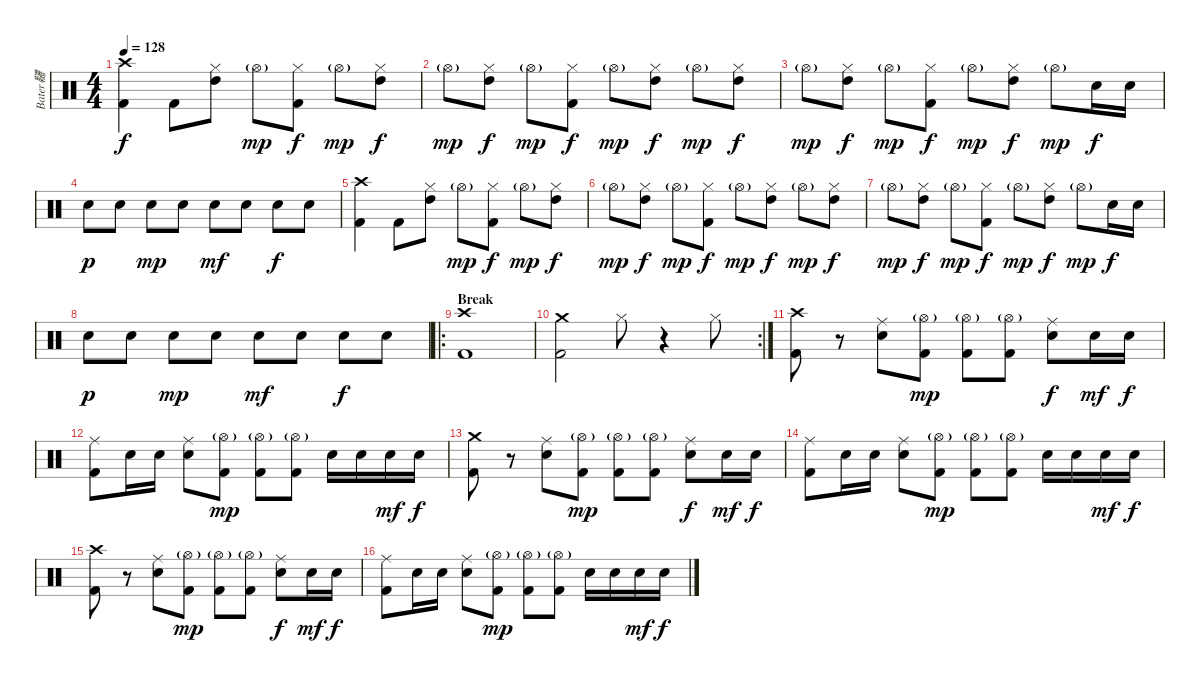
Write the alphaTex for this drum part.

\track ("Bater韆" "Bater韆") {instrument percussion}
\staff {score}
\articulation defaults
\ts (4 4)
\tempo 128
\clef neutral
\ks c
("Crash high (hit)" "Kick (hit) 2").4{dy f} "Kick (hit) 2".8 ("Hi-Hat (closed)" "High Tom (hit)").8 "Hi-Hat (open)"{g}.8{dy mp} ("Hi-Hat (closed)" "Kick (hit) 2").8{dy f} "Hi-Hat (open)"{g}.8{dy mp} ("Hi-Hat (closed)" "High Tom (hit)").8{dy f} |
"Hi-Hat (open)"{g}.8{dy mp} ("Hi-Hat (closed)" "High Tom (hit)").8{dy f} "Hi-Hat (open)"{g}.8{dy mp} ("Hi-Hat (closed)" "Kick (hit) 2").8{dy f} "Hi-Hat (open)"{g}.8{dy mp} ("Hi-Hat (closed)" "High Tom (hit)").8{dy f} "Hi-Hat (open)"{g}.8{dy mp} ("Hi-Hat (closed)" "High Tom (hit)").8{dy f} |
"Hi-Hat (open)"{g}.8{dy mp} ("Hi-Hat (closed)" "High Tom (hit)").8{dy f} "Hi-Hat (open)"{g}.8{dy mp} ("Hi-Hat (closed)" "Kick (hit) 2").8{dy f} "Hi-Hat (open)"{g}.8{dy mp} ("Hi-Hat (closed)" "High Tom (hit)").8{dy f} "Hi-Hat (open)"{g}.8{dy mp} "Electric Snare (hit)".16{dy f} "Electric Snare (hit)".16 |
"Electric Snare (hit)".8{dy p} "Electric Snare (hit)".8 "Electric Snare (hit)".8{dy mp} "Electric Snare (hit)".8 "Electric Snare (hit)".8{dy mf} "Electric Snare (hit)".8 "Electric Snare (hit)".8{dy f} "Electric Snare (hit)".8 |
("Crash high (hit)" "Kick (hit) 2").4 "Kick (hit) 2".8 ("Hi-Hat (closed)" "High Tom (hit)").8 "Hi-Hat (open)"{g}.8{dy mp} ("Hi-Hat (closed)" "Kick (hit) 2").8{dy f} "Hi-Hat (open)"{g}.8{dy mp} ("Hi-Hat (closed)" "High Tom (hit)").8{dy f} |
"Hi-Hat (open)"{g}.8{dy mp} ("Hi-Hat (closed)" "High Tom (hit)").8{dy f} "Hi-Hat (open)"{g}.8{dy mp} ("Hi-Hat (closed)" "Kick (hit) 2").8{dy f} "Hi-Hat (open)"{g}.8{dy mp} ("Hi-Hat (closed)" "High Tom (hit)").8{dy f} "Hi-Hat (open)"{g}.8{dy mp} ("Hi-Hat (closed)" "High Tom (hit)").8{dy f} |
"Hi-Hat (open)"{g}.8{dy mp} ("Hi-Hat (closed)" "High Tom (hit)").8{dy f} "Hi-Hat (open)"{g}.8{dy mp} ("Hi-Hat (closed)" "Kick (hit) 2").8{dy f} "Hi-Hat (open)"{g}.8{dy mp} ("Hi-Hat (closed)" "High Tom (hit)").8{dy f} "Hi-Hat (open)"{g}.8{dy mp} "Electric Snare (hit)".16{dy f} "Electric Snare (hit)".16 |
"Electric Snare (hit)".8{dy p} "Electric Snare (hit)".8 "Electric Snare (hit)".8{dy mp} "Electric Snare (hit)".8 "Electric Snare (hit)".8{dy mf} "Electric Snare (hit)".8 "Electric Snare (hit)".8{dy f} "Electric Snare (hit)".8 |
\ro
\section ("" "Break")
("Crash high (hit)" "Kick (hit) 2").1 |
\rc 2
("Crash medium (hit)" "Kick (hit) 2").2 "Hi-Hat (closed)".8 r.4 "Hi-Hat (closed)".8 |
("Crash high (hit)" "Kick (hit) 2").8 r.8 ("Ride (middle)" "Electric Snare (hit)").8 ("Hi-Hat (open)"{g} "Kick (hit) 2").8{dy mp} ("Hi-Hat (open)"{g} "Kick (hit) 2").8 ("Hi-Hat (open)"{g} "Kick (hit) 2").8 ("Ride (middle)" "Electric Snare (hit)").8{dy f} "Electric Snare (hit)".16{dy mf} "Electric Snare (hit)".16{dy f} |
("Ride (middle)" "Kick (hit) 2").8 "Electric Snare (hit)".16 "Electric Snare (hit)".16 ("Ride (middle)" "Electric Snare (hit)").8 ("Hi-Hat (open)"{g} "Kick (hit) 2").8{dy mp} ("Hi-Hat (open)"{g} "Kick (hit) 2").8 ("Hi-Hat (open)"{g} "Kick (hit) 2").8 "Electric Snare (hit)".16 "Electric Snare (hit)".16 "Electric Snare (hit)".16{dy mf} "Electric Snare (hit)".16{dy f} |
("Crash medium (hit)" "Kick (hit) 2").8 r.8 ("Ride (middle)" "Electric Snare (hit)").8 ("Hi-Hat (open)"{g} "Kick (hit) 2").8{dy mp} ("Hi-Hat (open)"{g} "Kick (hit) 2").8 ("Hi-Hat (open)"{g} "Kick (hit) 2").8 ("Ride (middle)" "Electric Snare (hit)").8{dy f} "Electric Snare (hit)".16{dy mf} "Electric Snare (hit)".16{dy f} |
("Ride (middle)" "Kick (hit) 2").8 "Electric Snare (hit)".16 "Electric Snare (hit)".16 ("Ride (middle)" "Electric Snare (hit)").8 ("Hi-Hat (open)"{g} "Kick (hit) 2").8{dy mp} ("Hi-Hat (open)"{g} "Kick (hit) 2").8 ("Hi-Hat (open)"{g} "Kick (hit) 2").8 "Electric Snare (hit)".16 "Electric Snare (hit)".16 "Electric Snare (hit)".16{dy mf} "Electric Snare (hit)".16{dy f} |
("Crash high (hit)" "Kick (hit) 2").8 r.8 ("Ride (middle)" "Electric Snare (hit)").8 ("Hi-Hat (open)"{g} "Kick (hit) 2").8{dy mp} ("Hi-Hat (open)"{g} "Kick (hit) 2").8 ("Hi-Hat (open)"{g} "Kick (hit) 2").8 ("Ride (middle)" "Electric Snare (hit)").8{dy f} "Electric Snare (hit)".16{dy mf} "Electric Snare (hit)".16{dy f} |
("Ride (middle)" "Kick (hit) 2").8 "Electric Snare (hit)".16 "Electric Snare (hit)".16 ("Ride (middle)" "Electric Snare (hit)").8 ("Hi-Hat (open)"{g} "Kick (hit) 2").8{dy mp} ("Hi-Hat (open)"{g} "Kick (hit) 2").8 ("Hi-Hat (open)"{g} "Kick (hit) 2").8 "Electric Snare (hit)".16 "Electric Snare (hit)".16 "Electric Snare (hit)".16{dy mf} "Electric Snare (hit)".16{dy f}
